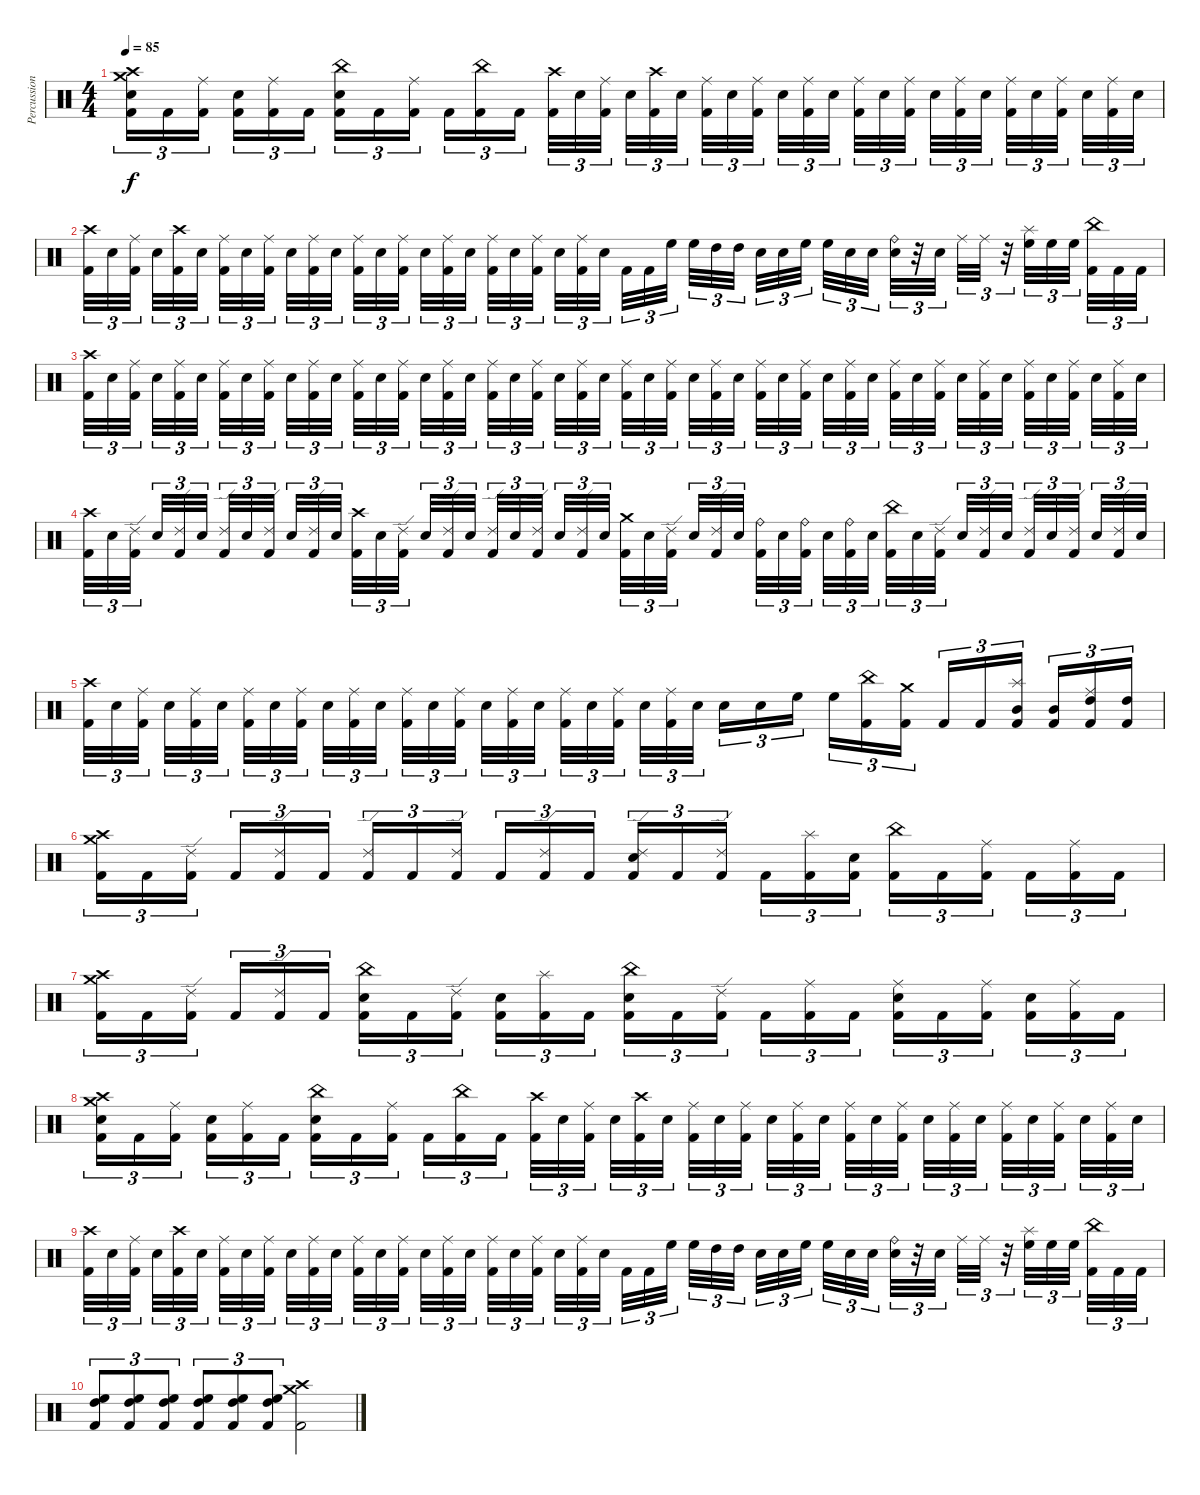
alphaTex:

\track ("Percussion" "Percussion") {instrument percussion}
\staff {score}
\articulation defaults
\ts (4 4)
\tempo 85
\clef neutral
\ks c
("Crash medium (hit)" "Crash high (hit)" "Electric Snare (hit)" "Kick (hit) 2").16{tu (3 2) dy f} "Kick (hit) 2".16{tu (3 2)} ("Ride (middle)" "Kick (hit) 2").16{tu (3 2) beam splitsecondary} ("Electric Snare (hit)" "Kick (hit) 2").16{tu (3 2)} ("Ride (middle)" "Kick (hit) 2").16{tu (3 2)} "Kick (hit) 2".16{tu (3 2)} ("China (hit)" "Electric Snare (hit)" "Kick (hit) 2").16{tu (3 2)} "Kick (hit) 2".16{tu (3 2)} ("Ride (middle)" "Kick (hit) 2").16{tu (3 2) beam splitsecondary} "Kick (hit) 2".16{tu (3 2)} ("China (hit)" "Kick (hit) 2").16{tu (3 2)} "Kick (hit) 2".16{tu (3 2)} ("Crash high (hit)" "Kick (hit) 2").32{tu (3 2)} "Electric Snare (hit)".32{tu (3 2)} ("Ride (middle)" "Kick (hit) 2").32{tu (3 2) beam splitsecondary} "Electric Snare (hit)".32{tu (3 2)} ("Crash high (hit)" "Kick (hit) 2").32{tu (3 2)} "Electric Snare (hit)".32{tu (3 2) beam splitsecondary} ("Ride (middle)" "Kick (hit) 2").32{tu (3 2)} "Electric Snare (hit)".32{tu (3 2)} ("Ride (middle)" "Kick (hit) 2").32{tu (3 2) beam splitsecondary} "Electric Snare (hit)".32{tu (3 2)} ("Ride (middle)" "Kick (hit) 2").32{tu (3 2)} "Electric Snare (hit)".32{tu (3 2)} ("Ride (middle)" "Kick (hit) 2").32{tu (3 2)} "Electric Snare (hit)".32{tu (3 2)} ("Ride (middle)" "Kick (hit) 2").32{tu (3 2) beam splitsecondary} "Electric Snare (hit)".32{tu (3 2)} ("Ride (middle)" "Kick (hit) 2").32{tu (3 2)} "Electric Snare (hit)".32{tu (3 2) beam splitsecondary} ("Ride (middle)" "Kick (hit) 2").32{tu (3 2)} "Electric Snare (hit)".32{tu (3 2)} ("Ride (middle)" "Kick (hit) 2").32{tu (3 2) beam splitsecondary} "Electric Snare (hit)".32{tu (3 2)} ("Ride (middle)" "Kick (hit) 2").32{tu (3 2)} "Electric Snare (hit)".32{tu (3 2)} |
("Crash high (hit)" "Kick (hit) 2").32{tu (3 2)} "Electric Snare (hit)".32{tu (3 2)} ("Ride (middle)" "Kick (hit) 2").32{tu (3 2) beam splitsecondary} "Electric Snare (hit)".32{tu (3 2)} ("Crash high (hit)" "Kick (hit) 2").32{tu (3 2)} "Electric Snare (hit)".32{tu (3 2) beam splitsecondary} ("Ride (middle)" "Kick (hit) 2").32{tu (3 2)} "Electric Snare (hit)".32{tu (3 2)} ("Ride (middle)" "Kick (hit) 2").32{tu (3 2) beam splitsecondary} "Electric Snare (hit)".32{tu (3 2)} ("Ride (middle)" "Kick (hit) 2").32{tu (3 2)} "Electric Snare (hit)".32{tu (3 2)} ("Ride (middle)" "Kick (hit) 2").32{tu (3 2)} "Electric Snare (hit)".32{tu (3 2)} ("Ride (middle)" "Kick (hit) 2").32{tu (3 2) beam splitsecondary} "Electric Snare (hit)".32{tu (3 2)} ("Ride (middle)" "Kick (hit) 2").32{tu (3 2)} "Electric Snare (hit)".32{tu (3 2) beam splitsecondary} ("Ride (middle)" "Kick (hit) 2").32{tu (3 2)} "Electric Snare (hit)".32{tu (3 2)} ("Ride (middle)" "Kick (hit) 2").32{tu (3 2) beam splitsecondary} "Electric Snare (hit)".32{tu (3 2)} ("Ride (middle)" "Kick (hit) 2").32{tu (3 2)} "Electric Snare (hit)".32{tu (3 2)} "Kick (hit) 2".32{tu (3 2)} "Kick (hit) 2".32{tu (3 2)} "High Floor Tom (hit)".32{tu (3 2) beam splitsecondary} "High Floor Tom (hit)".32{tu (3 2)} "High Tom (hit)".32{tu (3 2)} "High Tom (hit)".32{tu (3 2) beam splitsecondary} "Electric Snare (hit)".32{tu (3 2)} "Electric Snare (hit)".32{tu (3 2)} "High Floor Tom (hit)".32{tu (3 2) beam splitsecondary} "High Floor Tom (hit)".32{tu (3 2)} "Electric Snare (hit)".32{tu (3 2)} "Electric Snare (hit)".32{tu (3 2)} ("Ride (bell)" "Electric Snare (hit)").32{tu (3 2)} r.32{tu (3 2)} "Electric Snare (hit)".32{tu (3 2) beam splitsecondary} "Ride (middle)".32{tu (3 2)} "Ride (middle)".32{tu (3 2)} r.32{tu (3 2)} ("Splash (hit)" "High Floor Tom (hit)").32{tu (3 2)} "High Floor Tom (hit)".32{tu (3 2)} "High Floor Tom (hit)".32{tu (3 2) beam splitsecondary} ("China (hit)" "Kick (hit) 2").32{tu (3 2)} "Kick (hit) 2".32{tu (3 2)} "Kick (hit) 2".32{tu (3 2)} |
("Crash high (hit)" "Kick (hit) 2").32{tu (3 2)} "Electric Snare (hit)".32{tu (3 2)} ("Ride (middle)" "Kick (hit) 2").32{tu (3 2) beam splitsecondary} "Electric Snare (hit)".32{tu (3 2)} ("Ride (middle)" "Kick (hit) 2").32{tu (3 2)} "Electric Snare (hit)".32{tu (3 2) beam splitsecondary} ("Ride (middle)" "Kick (hit) 2").32{tu (3 2)} "Electric Snare (hit)".32{tu (3 2)} ("Ride (middle)" "Kick (hit) 2").32{tu (3 2) beam splitsecondary} "Electric Snare (hit)".32{tu (3 2)} ("Ride (middle)" "Kick (hit) 2").32{tu (3 2)} "Electric Snare (hit)".32{tu (3 2)} ("Ride (middle)" "Kick (hit) 2").32{tu (3 2)} "Electric Snare (hit)".32{tu (3 2)} ("Ride (middle)" "Kick (hit) 2").32{tu (3 2) beam splitsecondary} "Electric Snare (hit)".32{tu (3 2)} ("Ride (middle)" "Kick (hit) 2").32{tu (3 2)} "Electric Snare (hit)".32{tu (3 2) beam splitsecondary} ("Ride (middle)" "Kick (hit) 2").32{tu (3 2)} "Electric Snare (hit)".32{tu (3 2)} ("Ride (middle)" "Kick (hit) 2").32{tu (3 2) beam splitsecondary} "Electric Snare (hit)".32{tu (3 2)} ("Ride (middle)" "Kick (hit) 2").32{tu (3 2)} "Electric Snare (hit)".32{tu (3 2)} ("Ride (middle)" "Kick (hit) 2").32{tu (3 2)} "Electric Snare (hit)".32{tu (3 2)} ("Ride (middle)" "Kick (hit) 2").32{tu (3 2) beam splitsecondary} "Electric Snare (hit)".32{tu (3 2)} ("Ride (middle)" "Kick (hit) 2").32{tu (3 2)} "Electric Snare (hit)".32{tu (3 2) beam splitsecondary} ("Ride (middle)" "Kick (hit) 2").32{tu (3 2)} "Electric Snare (hit)".32{tu (3 2)} ("Ride (middle)" "Kick (hit) 2").32{tu (3 2) beam splitsecondary} "Electric Snare (hit)".32{tu (3 2)} ("Ride (middle)" "Kick (hit) 2").32{tu (3 2)} "Electric Snare (hit)".32{tu (3 2)} ("Ride (middle)" "Kick (hit) 2").32{tu (3 2)} "Electric Snare (hit)".32{tu (3 2)} ("Ride (middle)" "Kick (hit) 2").32{tu (3 2) beam splitsecondary} "Electric Snare (hit)".32{tu (3 2)} ("Ride (middle)" "Kick (hit) 2").32{tu (3 2)} "Electric Snare (hit)".32{tu (3 2) beam splitsecondary} ("Ride (middle)" "Kick (hit) 2").32{tu (3 2)} "Electric Snare (hit)".32{tu (3 2)} ("Ride (middle)" "Kick (hit) 2").32{tu (3 2) beam splitsecondary} "Electric Snare (hit)".32{tu (3 2)} ("Ride (middle)" "Kick (hit) 2").32{tu (3 2)} "Electric Snare (hit)".32{tu (3 2)} |
("Crash high (hit)" "Kick (hit) 2").32{tu (3 2)} "Electric Snare (hit)".32{tu (3 2)} ("Ride (edge) 2" "Kick (hit) 2").32{tu (3 2) beam splitsecondary} "Electric Snare (hit)".32{tu (3 2)} ("Ride (edge) 2" "Kick (hit) 2").32{tu (3 2)} "Electric Snare (hit)".32{tu (3 2) beam splitsecondary} ("Ride (edge) 2" "Kick (hit) 2").32{tu (3 2)} "Electric Snare (hit)".32{tu (3 2)} ("Ride (edge) 2" "Kick (hit) 2").32{tu (3 2) beam splitsecondary} "Electric Snare (hit)".32{tu (3 2)} ("Ride (edge) 2" "Kick (hit) 2").32{tu (3 2)} "Electric Snare (hit)".32{tu (3 2)} ("Crash high (hit)" "Kick (hit) 2").32{tu (3 2)} "Electric Snare (hit)".32{tu (3 2)} ("Ride (edge) 2" "Kick (hit) 2").32{tu (3 2) beam splitsecondary} "Electric Snare (hit)".32{tu (3 2)} ("Ride (edge) 2" "Kick (hit) 2").32{tu (3 2)} "Electric Snare (hit)".32{tu (3 2) beam splitsecondary} ("Ride (edge) 2" "Kick (hit) 2").32{tu (3 2)} "Electric Snare (hit)".32{tu (3 2)} ("Ride (edge) 2" "Kick (hit) 2").32{tu (3 2) beam splitsecondary} "Electric Snare (hit)".32{tu (3 2)} ("Ride (edge) 2" "Kick (hit) 2").32{tu (3 2)} "Electric Snare (hit)".32{tu (3 2)} ("Crash medium (hit)" "Kick (hit) 2").32{tu (3 2)} "Electric Snare (hit)".32{tu (3 2)} ("Ride (edge) 2" "Kick (hit) 2").32{tu (3 2) beam splitsecondary} "Electric Snare (hit)".32{tu (3 2)} ("Ride (edge) 2" "Kick (hit) 2").32{tu (3 2)} "Electric Snare (hit)".32{tu (3 2) beam splitsecondary} ("Ride (bell)" "Kick (hit) 2").32{tu (3 2)} "Electric Snare (hit)".32{tu (3 2)} ("Ride (bell)" "Kick (hit) 2").32{tu (3 2) beam splitsecondary} "Electric Snare (hit)".32{tu (3 2)} ("Ride (bell)" "Kick (hit) 2").32{tu (3 2)} "Electric Snare (hit)".32{tu (3 2)} ("China (hit)" "Kick (hit) 2").32{tu (3 2)} "Electric Snare (hit)".32{tu (3 2)} ("Ride (edge) 2" "Kick (hit) 2").32{tu (3 2) beam splitsecondary} "Electric Snare (hit)".32{tu (3 2)} ("Ride (edge) 2" "Kick (hit) 2").32{tu (3 2)} "Electric Snare (hit)".32{tu (3 2) beam splitsecondary} ("Ride (edge) 2" "Kick (hit) 2").32{tu (3 2)} "Electric Snare (hit)".32{tu (3 2)} ("Ride (edge) 2" "Kick (hit) 2").32{tu (3 2) beam splitsecondary} "Electric Snare (hit)".32{tu (3 2)} ("Ride (edge) 2" "Kick (hit) 2").32{tu (3 2)} "Electric Snare (hit)".32{tu (3 2)} |
("Crash high (hit)" "Kick (hit) 2").32{tu (3 2)} "Electric Snare (hit)".32{tu (3 2)} ("Ride (middle)" "Kick (hit) 2").32{tu (3 2) beam splitsecondary} "Electric Snare (hit)".32{tu (3 2)} ("Ride (middle)" "Kick (hit) 2").32{tu (3 2)} "Electric Snare (hit)".32{tu (3 2) beam splitsecondary} ("Ride (middle)" "Kick (hit) 2").32{tu (3 2)} "Electric Snare (hit)".32{tu (3 2)} ("Ride (middle)" "Kick (hit) 2").32{tu (3 2) beam splitsecondary} "Electric Snare (hit)".32{tu (3 2)} ("Ride (middle)" "Kick (hit) 2").32{tu (3 2)} "Electric Snare (hit)".32{tu (3 2)} ("Ride (middle)" "Kick (hit) 2").32{tu (3 2)} "Electric Snare (hit)".32{tu (3 2)} ("Ride (middle)" "Kick (hit) 2").32{tu (3 2) beam splitsecondary} "Electric Snare (hit)".32{tu (3 2)} ("Ride (middle)" "Kick (hit) 2").32{tu (3 2)} "Electric Snare (hit)".32{tu (3 2) beam splitsecondary} ("Ride (middle)" "Kick (hit) 2").32{tu (3 2)} "Electric Snare (hit)".32{tu (3 2)} ("Ride (middle)" "Kick (hit) 2").32{tu (3 2) beam splitsecondary} "Electric Snare (hit)".32{tu (3 2)} ("Ride (middle)" "Kick (hit) 2").32{tu (3 2)} "Electric Snare (hit)".32{tu (3 2)} "Electric Snare (hit)".16{tu (3 2)} "Electric Snare (hit)".16{tu (3 2)} "High Floor Tom (hit)".16{tu (3 2) beam splitsecondary} "High Floor Tom (hit)".16{tu (3 2)} ("China (hit)" "Kick (hit) 2").16{tu (3 2)} ("Crash medium (hit)" "Kick (hit) 2").16{tu (3 2)} "Kick (hit) 2".16{tu (3 2)} "Kick (hit) 2".16{tu (3 2)} ("Splash (hit)" "Mid Tom (hit)" "Kick (hit) 2").16{tu (3 2) beam splitsecondary} ("Mid Tom (hit)" "Kick (hit) 2").16{tu (3 2)} ("Ride (middle)" "High Tom (hit)" "Kick (hit) 2").16{tu (3 2)} ("High Tom (hit)" "Kick (hit) 2").16{tu (3 2)} |
("Crash medium (hit)" "Crash high (hit)" "Kick (hit) 2").16{tu (3 2)} "Kick (hit) 2".16{tu (3 2)} ("Ride (edge) 2" "Kick (hit) 2").16{tu (3 2) beam splitsecondary} "Kick (hit) 2".16{tu (3 2)} ("Ride (edge) 2" "Kick (hit) 2").16{tu (3 2)} "Kick (hit) 2".16{tu (3 2)} ("Ride (edge) 2" "Kick (hit) 2").16{tu (3 2)} "Kick (hit) 2".16{tu (3 2)} ("Ride (edge) 2" "Kick (hit) 2").16{tu (3 2) beam splitsecondary} "Kick (hit) 2".16{tu (3 2)} ("Ride (edge) 2" "Kick (hit) 2").16{tu (3 2)} "Kick (hit) 2".16{tu (3 2)} ("Ride (edge) 2" "Electric Snare (hit)" "Kick (hit) 2").16{tu (3 2)} "Kick (hit) 2".16{tu (3 2)} ("Ride (edge) 2" "Kick (hit) 2").16{tu (3 2) beam splitsecondary} "Kick (hit) 2".16{tu (3 2)} ("Splash (hit)" "Kick (hit) 2").16{tu (3 2)} ("Electric Snare (hit)" "Kick (hit) 2").16{tu (3 2)} ("China (hit)" "Kick (hit) 2").16{tu (3 2)} "Kick (hit) 2".16{tu (3 2)} ("Ride (middle)" "Kick (hit) 2").16{tu (3 2) beam splitsecondary} "Kick (hit) 2".16{tu (3 2)} ("Ride (middle)" "Kick (hit) 2").16{tu (3 2)} "Kick (hit) 2".16{tu (3 2)} |
("Crash medium (hit)" "Crash high (hit)" "Kick (hit) 2").16{tu (3 2)} "Kick (hit) 2".16{tu (3 2)} ("Ride (edge) 2" "Kick (hit) 2").16{tu (3 2) beam splitsecondary} "Kick (hit) 2".16{tu (3 2)} ("Ride (edge) 2" "Kick (hit) 2").16{tu (3 2)} "Kick (hit) 2".16{tu (3 2)} ("China (hit)" "Electric Snare (hit)" "Kick (hit) 2").16{tu (3 2)} "Kick (hit) 2".16{tu (3 2)} ("Ride (edge) 2" "Kick (hit) 2").16{tu (3 2) beam splitsecondary} ("Electric Snare (hit)" "Kick (hit) 2").16{tu (3 2)} ("Splash (hit)" "Kick (hit) 2").16{tu (3 2)} "Kick (hit) 2".16{tu (3 2)} ("China (hit)" "Electric Snare (hit)" "Kick (hit) 2").16{tu (3 2)} "Kick (hit) 2".16{tu (3 2)} ("Ride (edge) 2" "Kick (hit) 2").16{tu (3 2) beam splitsecondary} "Kick (hit) 2".16{tu (3 2)} ("Ride (middle)" "Kick (hit) 2").16{tu (3 2)} "Kick (hit) 2".16{tu (3 2)} ("Ride (middle)" "Electric Snare (hit)" "Kick (hit) 2").16{tu (3 2)} "Kick (hit) 2".16{tu (3 2)} ("Ride (middle)" "Kick (hit) 2").16{tu (3 2) beam splitsecondary} ("Electric Snare (hit)" "Kick (hit) 2").16{tu (3 2)} ("Ride (middle)" "Kick (hit) 2").16{tu (3 2)} "Kick (hit) 2".16{tu (3 2)} |
("Crash medium (hit)" "Crash high (hit)" "Electric Snare (hit)" "Kick (hit) 2").16{tu (3 2)} "Kick (hit) 2".16{tu (3 2)} ("Ride (middle)" "Kick (hit) 2").16{tu (3 2) beam splitsecondary} ("Electric Snare (hit)" "Kick (hit) 2").16{tu (3 2)} ("Ride (middle)" "Kick (hit) 2").16{tu (3 2)} "Kick (hit) 2".16{tu (3 2)} ("China (hit)" "Electric Snare (hit)" "Kick (hit) 2").16{tu (3 2)} "Kick (hit) 2".16{tu (3 2)} ("Ride (middle)" "Kick (hit) 2").16{tu (3 2) beam splitsecondary} "Kick (hit) 2".16{tu (3 2)} ("China (hit)" "Kick (hit) 2").16{tu (3 2)} "Kick (hit) 2".16{tu (3 2)} ("Crash high (hit)" "Kick (hit) 2").32{tu (3 2)} "Electric Snare (hit)".32{tu (3 2)} ("Ride (middle)" "Kick (hit) 2").32{tu (3 2) beam splitsecondary} "Electric Snare (hit)".32{tu (3 2)} ("Crash high (hit)" "Kick (hit) 2").32{tu (3 2)} "Electric Snare (hit)".32{tu (3 2) beam splitsecondary} ("Ride (middle)" "Kick (hit) 2").32{tu (3 2)} "Electric Snare (hit)".32{tu (3 2)} ("Ride (middle)" "Kick (hit) 2").32{tu (3 2) beam splitsecondary} "Electric Snare (hit)".32{tu (3 2)} ("Ride (middle)" "Kick (hit) 2").32{tu (3 2)} "Electric Snare (hit)".32{tu (3 2)} ("Ride (middle)" "Kick (hit) 2").32{tu (3 2)} "Electric Snare (hit)".32{tu (3 2)} ("Ride (middle)" "Kick (hit) 2").32{tu (3 2) beam splitsecondary} "Electric Snare (hit)".32{tu (3 2)} ("Ride (middle)" "Kick (hit) 2").32{tu (3 2)} "Electric Snare (hit)".32{tu (3 2) beam splitsecondary} ("Ride (middle)" "Kick (hit) 2").32{tu (3 2)} "Electric Snare (hit)".32{tu (3 2)} ("Ride (middle)" "Kick (hit) 2").32{tu (3 2) beam splitsecondary} "Electric Snare (hit)".32{tu (3 2)} ("Ride (middle)" "Kick (hit) 2").32{tu (3 2)} "Electric Snare (hit)".32{tu (3 2)} |
("Crash high (hit)" "Kick (hit) 2").32{tu (3 2)} "Electric Snare (hit)".32{tu (3 2)} ("Ride (middle)" "Kick (hit) 2").32{tu (3 2) beam splitsecondary} "Electric Snare (hit)".32{tu (3 2)} ("Crash high (hit)" "Kick (hit) 2").32{tu (3 2)} "Electric Snare (hit)".32{tu (3 2) beam splitsecondary} ("Ride (middle)" "Kick (hit) 2").32{tu (3 2)} "Electric Snare (hit)".32{tu (3 2)} ("Ride (middle)" "Kick (hit) 2").32{tu (3 2) beam splitsecondary} "Electric Snare (hit)".32{tu (3 2)} ("Ride (middle)" "Kick (hit) 2").32{tu (3 2)} "Electric Snare (hit)".32{tu (3 2)} ("Ride (middle)" "Kick (hit) 2").32{tu (3 2)} "Electric Snare (hit)".32{tu (3 2)} ("Ride (middle)" "Kick (hit) 2").32{tu (3 2) beam splitsecondary} "Electric Snare (hit)".32{tu (3 2)} ("Ride (middle)" "Kick (hit) 2").32{tu (3 2)} "Electric Snare (hit)".32{tu (3 2) beam splitsecondary} ("Ride (middle)" "Kick (hit) 2").32{tu (3 2)} "Electric Snare (hit)".32{tu (3 2)} ("Ride (middle)" "Kick (hit) 2").32{tu (3 2) beam splitsecondary} "Electric Snare (hit)".32{tu (3 2)} ("Ride (middle)" "Kick (hit) 2").32{tu (3 2)} "Electric Snare (hit)".32{tu (3 2)} "Kick (hit) 2".32{tu (3 2)} "Kick (hit) 2".32{tu (3 2)} "High Floor Tom (hit)".32{tu (3 2) beam splitsecondary} "High Floor Tom (hit)".32{tu (3 2)} "High Tom (hit)".32{tu (3 2)} "High Tom (hit)".32{tu (3 2) beam splitsecondary} "Electric Snare (hit)".32{tu (3 2)} "Electric Snare (hit)".32{tu (3 2)} "High Floor Tom (hit)".32{tu (3 2) beam splitsecondary} "High Floor Tom (hit)".32{tu (3 2)} "Electric Snare (hit)".32{tu (3 2)} "Electric Snare (hit)".32{tu (3 2)} ("Ride (bell)" "Electric Snare (hit)").32{tu (3 2)} r.32{tu (3 2)} "Electric Snare (hit)".32{tu (3 2) beam splitsecondary} "Ride (middle)".32{tu (3 2)} "Ride (middle)".32{tu (3 2)} r.32{tu (3 2)} ("Splash (hit)" "High Floor Tom (hit)").32{tu (3 2)} "High Floor Tom (hit)".32{tu (3 2)} "High Floor Tom (hit)".32{tu (3 2) beam splitsecondary} ("China (hit)" "Kick (hit) 2").32{tu (3 2)} "Kick (hit) 2".32{tu (3 2)} "Kick (hit) 2".32{tu (3 2)} |
("High Tom (hit)" "High Floor Tom (hit)" "Kick (hit) 2").8{tu (3 2)} ("High Tom (hit)" "High Floor Tom (hit)" "Kick (hit) 2").8{tu (3 2)} ("High Tom (hit)" "High Floor Tom (hit)" "Kick (hit) 2").8{tu (3 2)} ("High Tom (hit)" "High Floor Tom (hit)" "Kick (hit) 2").8{tu (3 2)} ("High Tom (hit)" "High Floor Tom (hit)" "Kick (hit) 2").8{tu (3 2)} ("High Tom (hit)" "High Floor Tom (hit)" "Kick (hit) 2").8{tu (3 2)} ("Crash medium (hit)" "Crash high (hit)" "Kick (hit) 2").2
